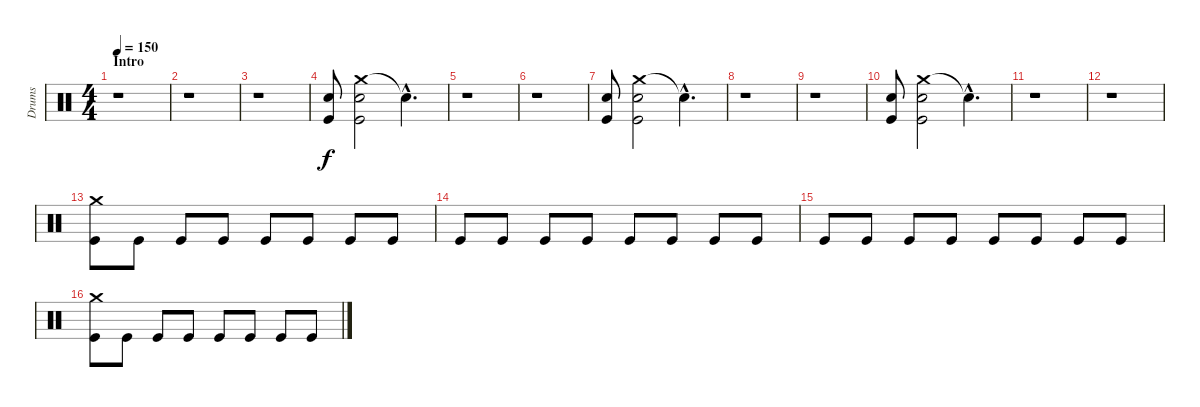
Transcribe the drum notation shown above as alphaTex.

\track ("Drums" "Drums") {instrument percussion}
\staff {score}
\articulation defaults
\ts (4 4)
\section ("" "Intro")
\tempo 150
\clef neutral
\ks c
r.1{dy f} |
r.1 |
r.1 |
("Snare (hit) 2" "Kick (hit)").8 ("Crash medium (hit)" "Snare (hit) 2" "Kick (hit)").2 "Snare (hit)"{hac t}.4{d} |
r.1 |
r.1 |
("Snare (hit) 2" "Kick (hit)").8 ("Crash medium (hit)" "Snare (hit) 2" "Kick (hit)").2 "Snare (hit)"{hac t}.4{d} |
r.1 |
r.1 |
("Snare (hit) 2" "Kick (hit)").8 ("Crash medium (hit)" "Snare (hit) 2" "Kick (hit)").2 "Snare (hit)"{hac t}.4{d} |
r.1 |
r.1 |
("Crash medium (hit)" "Kick (hit)").8 "Kick (hit)".8 "Kick (hit)".8 "Kick (hit)".8 "Kick (hit)".8 "Kick (hit)".8 "Kick (hit)".8 "Kick (hit)".8 |
"Kick (hit)".8 "Kick (hit)".8 "Kick (hit)".8 "Kick (hit)".8 "Kick (hit)".8 "Kick (hit)".8 "Kick (hit)".8 "Kick (hit)".8 |
"Kick (hit)".8 "Kick (hit)".8 "Kick (hit)".8 "Kick (hit)".8 "Kick (hit)".8 "Kick (hit)".8 "Kick (hit)".8 "Kick (hit)".8 |
("Crash medium (hit)" "Kick (hit)").8 "Kick (hit)".8 "Kick (hit)".8 "Kick (hit)".8 "Kick (hit)".8 "Kick (hit)".8 "Kick (hit)".8 "Kick (hit)".8
